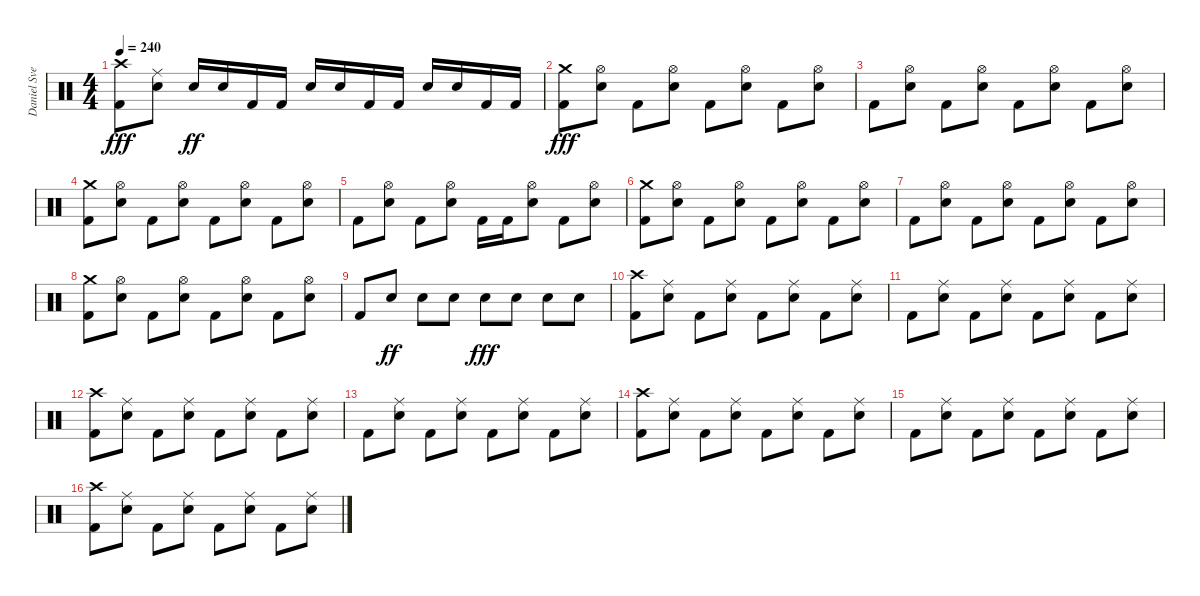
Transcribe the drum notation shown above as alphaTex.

\track ("Daniel Svensson" "Daniel Sve") {instrument percussion}
\staff {score}
\articulation defaults
\ts (4 4)
\tempo 240
\clef neutral
\ks c
("Crash high (hit)" "Kick (hit) 2").8{dy fff} ("Ride (middle)" "Electric Snare (hit)").8 "Electric Snare (hit)".16{dy ff} "Electric Snare (hit)".16 "Kick (hit) 2".16 "Kick (hit) 2".16 "Electric Snare (hit)".16 "Electric Snare (hit)".16 "Kick (hit) 2".16 "Kick (hit) 2".16 "Electric Snare (hit)".16 "Electric Snare (hit)".16 "Kick (hit) 2".16 "Kick (hit) 2".16 |
("Crash medium (hit)" "Kick (hit) 2").8{dy fff} ("Hi-Hat (open)" "Electric Snare (hit)").8 "Kick (hit) 2".8 ("Hi-Hat (open)" "Electric Snare (hit)").8 "Kick (hit) 2".8 ("Hi-Hat (open)" "Electric Snare (hit)").8 "Kick (hit) 2".8 ("Hi-Hat (open)" "Electric Snare (hit)").8 |
"Kick (hit) 2".8 ("Hi-Hat (open)" "Electric Snare (hit)").8 "Kick (hit) 2".8 ("Hi-Hat (open)" "Electric Snare (hit)").8 "Kick (hit) 2".8 ("Hi-Hat (open)" "Electric Snare (hit)").8 "Kick (hit) 2".8 ("Hi-Hat (open)" "Electric Snare (hit)").8 |
("Crash medium (hit)" "Kick (hit) 2").8 ("Hi-Hat (open)" "Electric Snare (hit)").8 "Kick (hit) 2".8 ("Hi-Hat (open)" "Electric Snare (hit)").8 "Kick (hit) 2".8 ("Hi-Hat (open)" "Electric Snare (hit)").8 "Kick (hit) 2".8 ("Hi-Hat (open)" "Electric Snare (hit)").8 |
"Kick (hit) 2".8 ("Hi-Hat (open)" "Electric Snare (hit)").8 "Kick (hit) 2".8 ("Hi-Hat (open)" "Electric Snare (hit)").8 "Kick (hit) 2".16 "Kick (hit) 2".16 ("Hi-Hat (open)" "Electric Snare (hit)").8 "Kick (hit) 2".8 ("Hi-Hat (open)" "Electric Snare (hit)").8 |
("Crash medium (hit)" "Kick (hit) 2").8 ("Hi-Hat (open)" "Electric Snare (hit)").8 "Kick (hit) 2".8 ("Hi-Hat (open)" "Electric Snare (hit)").8 "Kick (hit) 2".8 ("Hi-Hat (open)" "Electric Snare (hit)").8 "Kick (hit) 2".8 ("Hi-Hat (open)" "Electric Snare (hit)").8 |
"Kick (hit) 2".8 ("Hi-Hat (open)" "Electric Snare (hit)").8 "Kick (hit) 2".8 ("Hi-Hat (open)" "Electric Snare (hit)").8 "Kick (hit) 2".8 ("Hi-Hat (open)" "Electric Snare (hit)").8 "Kick (hit) 2".8 ("Hi-Hat (open)" "Electric Snare (hit)").8 |
("Crash medium (hit)" "Kick (hit) 2").8 ("Hi-Hat (open)" "Electric Snare (hit)").8 "Kick (hit) 2".8 ("Hi-Hat (open)" "Electric Snare (hit)").8 "Kick (hit) 2".8 ("Hi-Hat (open)" "Electric Snare (hit)").8 "Kick (hit) 2".8 ("Hi-Hat (open)" "Electric Snare (hit)").8 |
"Kick (hit) 2".8 "Electric Snare (hit)".8{dy ff} "Electric Snare (hit)".8 "Electric Snare (hit)".8 "Electric Snare (hit)".8{dy fff} "Electric Snare (hit)".8 "Electric Snare (hit)".8 "Electric Snare (hit)".8 |
("Crash high (hit)" "Kick (hit) 2").8 ("Ride (middle)" "Electric Snare (hit)").8 "Kick (hit) 2".8 ("Ride (middle)" "Electric Snare (hit)").8 "Kick (hit) 2".8 ("Ride (middle)" "Electric Snare (hit)").8 "Kick (hit) 2".8 ("Ride (middle)" "Electric Snare (hit)").8 |
"Kick (hit) 2".8 ("Ride (middle)" "Electric Snare (hit)").8 "Kick (hit) 2".8 ("Ride (middle)" "Electric Snare (hit)").8 "Kick (hit) 2".8 ("Ride (middle)" "Electric Snare (hit)").8 "Kick (hit) 2".8 ("Ride (middle)" "Electric Snare (hit)").8 |
("Crash high (hit)" "Kick (hit) 2").8 ("Ride (middle)" "Electric Snare (hit)").8 "Kick (hit) 2".8 ("Ride (middle)" "Electric Snare (hit)").8 "Kick (hit) 2".8 ("Ride (middle)" "Electric Snare (hit)").8 "Kick (hit) 2".8 ("Ride (middle)" "Electric Snare (hit)").8 |
"Kick (hit) 2".8 ("Ride (middle)" "Electric Snare (hit)").8 "Kick (hit) 2".8 ("Ride (middle)" "Electric Snare (hit)").8 "Kick (hit) 2".8 ("Ride (middle)" "Electric Snare (hit)").8 "Kick (hit) 2".8 ("Ride (middle)" "Electric Snare (hit)").8 |
("Crash high (hit)" "Kick (hit) 2").8 ("Ride (middle)" "Electric Snare (hit)").8 "Kick (hit) 2".8 ("Ride (middle)" "Electric Snare (hit)").8 "Kick (hit) 2".8 ("Ride (middle)" "Electric Snare (hit)").8 "Kick (hit) 2".8 ("Ride (middle)" "Electric Snare (hit)").8 |
"Kick (hit) 2".8 ("Ride (middle)" "Electric Snare (hit)").8 "Kick (hit) 2".8 ("Ride (middle)" "Electric Snare (hit)").8 "Kick (hit) 2".8 ("Ride (middle)" "Electric Snare (hit)").8 "Kick (hit) 2".8 ("Ride (middle)" "Electric Snare (hit)").8 |
("Crash high (hit)" "Kick (hit) 2").8 ("Ride (middle)" "Electric Snare (hit)").8 "Kick (hit) 2".8 ("Ride (middle)" "Electric Snare (hit)").8 "Kick (hit) 2".8 ("Ride (middle)" "Electric Snare (hit)").8 "Kick (hit) 2".8 ("Ride (middle)" "Electric Snare (hit)").8
